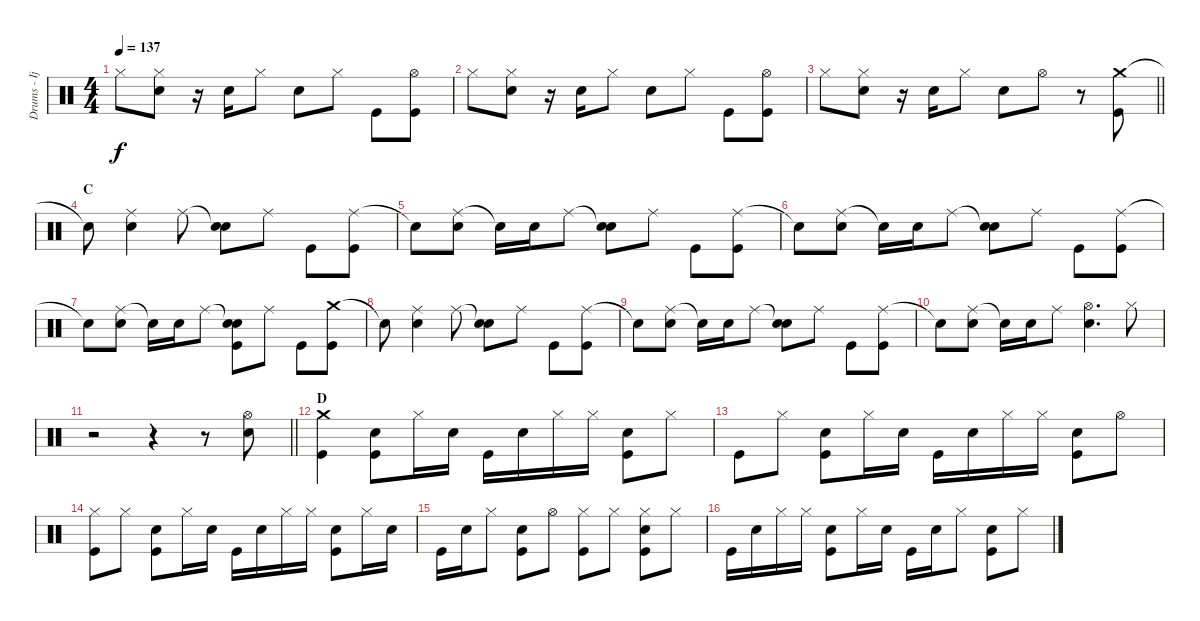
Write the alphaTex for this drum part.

\track ("Drums - Ijichi" "Drums - Ij") {instrument percussion}
\staff {score}
\articulation defaults
\ts (4 4)
\tempo 137
\clef neutral
\ks c "Hi-Hat (closed)".8{dy f}
("Hi-Hat (closed)" "Electric Snare (hit)").8 r.16 "Electric Snare (hit)".16 "Hi-Hat (closed)".8 "Electric Snare (hit)".8 "Hi-Hat (closed)".8 "Kick (hit)".8 ("Hi-Hat (open)" "Kick (hit)").8 |
"Hi-Hat (closed)".8 ("Hi-Hat (closed)" "Electric Snare (hit)").8 r.16 "Electric Snare (hit)".16 "Hi-Hat (closed)".8 "Electric Snare (hit)".8 "Hi-Hat (closed)".8 "Kick (hit)".8 ("Hi-Hat (open)" "Kick (hit)").8 |
\barLineRight lightlight "Hi-Hat (closed)".8
("Hi-Hat (closed)" "Electric Snare (hit)").8 r.16 "Electric Snare (hit)".16 "Hi-Hat (closed)".8 "Electric Snare (hit)".8 "Hi-Hat (open)".8 r.8 ("Crash medium (hit)" "Kick (hit)").8 |
\section ("" "C")
"Snare (hit)"{t}.8 ("Ride (middle)" "Electric Snare (hit)").4 "Ride (middle)".8 ("Snare (hit)"{t} "Electric Snare (hit)").8 "Ride (middle)".8 "Kick (hit)".8 ("Ride (middle)" "Kick (hit)").8 |
"Snare (hit)"{t}.8 ("Ride (middle)" "Electric Snare (hit)").8 "Snare (hit)"{t}.16 "Electric Snare (hit)".16 "Ride (middle)".8 ("Snare (hit)"{t} "Electric Snare (hit)").8 "Ride (middle)".8 "Kick (hit)".8 ("Ride (middle)" "Kick (hit)").8 |
"Snare (hit)"{t}.8 ("Ride (middle)" "Electric Snare (hit)").8 "Snare (hit)"{t}.16 "Electric Snare (hit)".16 "Ride (middle)".8 ("Snare (hit)"{t} "Electric Snare (hit)").8 "Ride (middle)".8 "Kick (hit)".8 ("Ride (middle)" "Kick (hit)").8 |
"Snare (hit)"{t}.8 ("Ride (middle)" "Electric Snare (hit)").8 "Snare (hit)"{t}.16 "Electric Snare (hit)".16 "Ride (middle)".8 ("Snare (hit)"{t} "Electric Snare (hit)" "Kick (hit)").8 "Ride (middle)".8 "Kick (hit)".8 ("Crash medium (hit)" "Kick (hit)").8 |
"Snare (hit)"{t}.8 ("Ride (middle)" "Electric Snare (hit)").4 "Ride (middle)".8 ("Snare (hit)"{t} "Electric Snare (hit)").8 "Ride (middle)".8 "Kick (hit)".8 ("Ride (middle)" "Kick (hit)").8 |
"Snare (hit)"{t}.8 ("Ride (middle)" "Electric Snare (hit)").8 "Snare (hit)"{t}.16 "Electric Snare (hit)".16 "Ride (middle)".8 ("Snare (hit)"{t} "Electric Snare (hit)").8 "Ride (middle)".8 "Kick (hit)".8 ("Ride (middle)" "Kick (hit)").8 |
"Snare (hit)"{t}.8 ("Ride (middle)" "Electric Snare (hit)").8 "Snare (hit)"{t}.16 "Electric Snare (hit)".16 "Ride (middle)".8 ("Hi-Hat (open)" "Electric Snare (hit)").4{d} "Hi-Hat (closed)".8 |
\barLineRight lightlight
r.2 r.4 r.8 ("Hi-Hat (open)" "Electric Snare (hit)").8 |
\section ("" "D")
("Crash medium (hit)" "Kick (hit)").4 ("Electric Snare (hit)" "Kick (hit)").8 "Hi-Hat (closed)".16 "Electric Snare (hit)".16 "Kick (hit)".16 "Electric Snare (hit)".16 "Hi-Hat (closed)".16 "Hi-Hat (closed)".16 ("Electric Snare (hit)" "Kick (hit)").8 "Hi-Hat (closed)".8 |
"Kick (hit)".8 "Hi-Hat (closed)".8 ("Electric Snare (hit)" "Kick (hit)").8 "Hi-Hat (closed)".16 "Electric Snare (hit)".16 "Kick (hit)".16 "Electric Snare (hit)".16 "Hi-Hat (closed)".16 "Hi-Hat (closed)".16 ("Electric Snare (hit)" "Kick (hit)").8 "Hi-Hat (open)".8 |
("Hi-Hat (closed)" "Kick (hit)").8 "Hi-Hat (closed)".8 ("Electric Snare (hit)" "Kick (hit)").8 "Hi-Hat (closed)".16 "Electric Snare (hit)".16 "Kick (hit)".16 "Electric Snare (hit)".16 "Hi-Hat (closed)".16 "Hi-Hat (closed)".16 ("Electric Snare (hit)" "Kick (hit)").8 "Hi-Hat (closed)".16 "Electric Snare (hit)".16 |
"Kick (hit)".16 "Electric Snare (hit)".16 "Hi-Hat (closed)".8 ("Electric Snare (hit)" "Kick (hit)").8 "Hi-Hat (open)".8 ("Hi-Hat (closed)" "Kick (hit)").8 "Hi-Hat (closed)".8 ("Hi-Hat (closed)" "Electric Snare (hit)" "Kick (hit)").8 "Hi-Hat (closed)".8 |
"Kick (hit)".16 "Electric Snare (hit)".16 "Hi-Hat (closed)".16 "Hi-Hat (closed)".16 ("Electric Snare (hit)" "Kick (hit)").8 "Hi-Hat (closed)".16 "Electric Snare (hit)".16 "Kick (hit)".16 "Electric Snare (hit)".16 "Hi-Hat (closed)".8 ("Electric Snare (hit)" "Kick (hit)").8 "Hi-Hat (closed)".8
